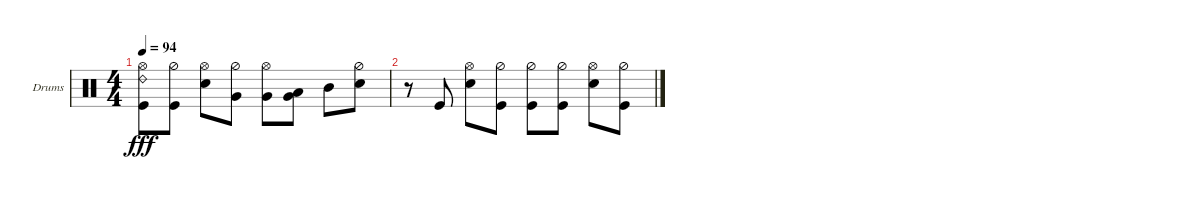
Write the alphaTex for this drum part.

\defaultSystemsLayout 4
\bracketExtendMode groupsimilarinstruments
\firstSystemTrackNameOrientation horizontal
\otherSystemsTrackNameOrientation horizontal
\track ("Drumkit" "Drums") {instrument percussion}
\staff {score}
\articulation defaults
\ts (4 4)
\tempo 94
\clef neutral
\ks c
("Hi-Hat (open)" "Ride (bell) 2" "Kick (hit)").8{dy fff} ("Kick (hit)" "Hi-Hat (half)").8 ("Snare (hit) 2" "Hi-Hat (open)").8 ("Very Low Tom (hit)" "Hi-Hat (half)").8 ("Very Low Tom (hit)" "Hi-Hat (open)").8 ("Low Tom (hit)" "Very Low Tom (hit)").8 "Mid Tom (hit)".8 ("Snare (hit) 2" "Hi-Hat (half)").8 |
r.8 "Kick (hit)".8 ("Hi-Hat (open)" "Snare (hit) 2").8 ("Hi-Hat (half)" "Kick (hit)").8 ("Hi-Hat (half)" "Kick (hit)").8 ("Hi-Hat (half)" "Kick (hit)").8 ("Hi-Hat (open)" "Snare (hit) 2").8 ("Hi-Hat (half)" "Kick (hit)").8
